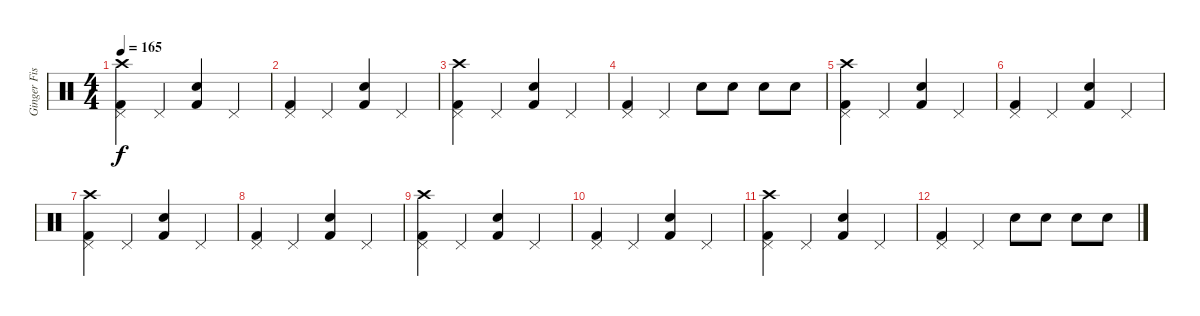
\track ("Ginger Fish" "Ginger Fis") {instrument percussion}
\staff {score}
\articulation defaults
\ts (4 4)
\tempo 165
\clef neutral
\ks c
("Crash high (hit)" "Pedal Hi-Hat (hit)" "Kick (hit) 2").4{dy f} "Pedal Hi-Hat (hit)".4 ("Electric Snare (hit)" "Kick (hit) 2").4 "Pedal Hi-Hat (hit)".4 |
("Pedal Hi-Hat (hit)" "Kick (hit) 2").4 "Pedal Hi-Hat (hit)".4 ("Electric Snare (hit)" "Kick (hit) 2").4 "Pedal Hi-Hat (hit)".4 |
("Crash high (hit)" "Pedal Hi-Hat (hit)" "Kick (hit) 2").4 "Pedal Hi-Hat (hit)".4 ("Electric Snare (hit)" "Kick (hit) 2").4 "Pedal Hi-Hat (hit)".4 |
("Pedal Hi-Hat (hit)" "Kick (hit) 2").4 "Pedal Hi-Hat (hit)".4 "Electric Snare (hit)".8 "Electric Snare (hit)".8 "Electric Snare (hit)".8 "Electric Snare (hit)".8 |
("Crash high (hit)" "Pedal Hi-Hat (hit)" "Kick (hit) 2").4 "Pedal Hi-Hat (hit)".4 ("Electric Snare (hit)" "Kick (hit) 2").4 "Pedal Hi-Hat (hit)".4 |
("Pedal Hi-Hat (hit)" "Kick (hit) 2").4 "Pedal Hi-Hat (hit)".4 ("Electric Snare (hit)" "Kick (hit) 2").4 "Pedal Hi-Hat (hit)".4 |
("Crash high (hit)" "Pedal Hi-Hat (hit)" "Kick (hit) 2").4 "Pedal Hi-Hat (hit)".4 ("Electric Snare (hit)" "Kick (hit) 2").4 "Pedal Hi-Hat (hit)".4 |
("Pedal Hi-Hat (hit)" "Kick (hit) 2").4 "Pedal Hi-Hat (hit)".4 ("Electric Snare (hit)" "Kick (hit) 2").4 "Pedal Hi-Hat (hit)".4 |
("Crash high (hit)" "Pedal Hi-Hat (hit)" "Kick (hit) 2").4 "Pedal Hi-Hat (hit)".4 ("Electric Snare (hit)" "Kick (hit) 2").4 "Pedal Hi-Hat (hit)".4 |
("Pedal Hi-Hat (hit)" "Kick (hit) 2").4 "Pedal Hi-Hat (hit)".4 ("Electric Snare (hit)" "Kick (hit) 2").4 "Pedal Hi-Hat (hit)".4 |
("Crash high (hit)" "Pedal Hi-Hat (hit)" "Kick (hit) 2").4 "Pedal Hi-Hat (hit)".4 ("Electric Snare (hit)" "Kick (hit) 2").4 "Pedal Hi-Hat (hit)".4 |
("Pedal Hi-Hat (hit)" "Kick (hit) 2").4 "Pedal Hi-Hat (hit)".4 "Electric Snare (hit)".8 "Electric Snare (hit)".8 "Electric Snare (hit)".8 "Electric Snare (hit)".8
